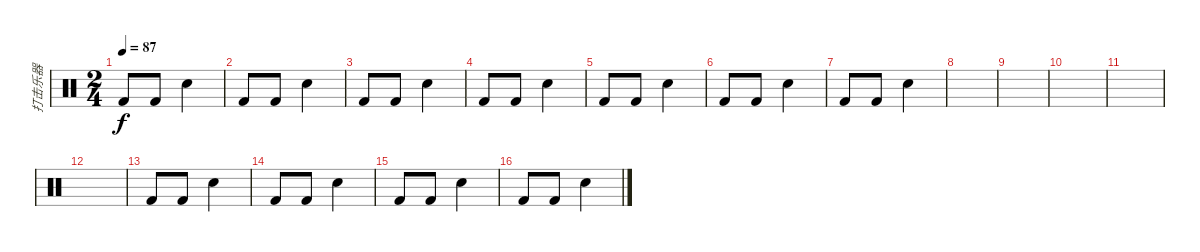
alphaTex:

\track ("打击乐器" "打击乐器") {instrument percussion}
\staff {score}
\articulation defaults
\ts (2 4)
\tempo 87
\clef neutral
\ks c "Kick (hit) 2".8{dy f} "Kick (hit) 2".8 "Snare (hit) 2".4
|
"Kick (hit) 2".8 "Kick (hit) 2".8 "Snare (hit) 2".4 |
"Kick (hit) 2".8 "Kick (hit) 2".8 "Snare (hit) 2".4 |
"Kick (hit) 2".8 "Kick (hit) 2".8 "Snare (hit) 2".4 |
"Kick (hit) 2".8 "Kick (hit) 2".8 "Snare (hit) 2".4 |
"Kick (hit) 2".8 "Kick (hit) 2".8 "Snare (hit) 2".4 |
"Kick (hit) 2".8 "Kick (hit) 2".8 "Snare (hit) 2".4 |
|
|
|
|
|
"Kick (hit) 2".8 "Kick (hit) 2".8 "Snare (hit) 2".4 |
"Kick (hit) 2".8 "Kick (hit) 2".8 "Snare (hit) 2".4 |
"Kick (hit) 2".8 "Kick (hit) 2".8 "Snare (hit) 2".4 |
"Kick (hit) 2".8 "Kick (hit) 2".8 "Snare (hit) 2".4
